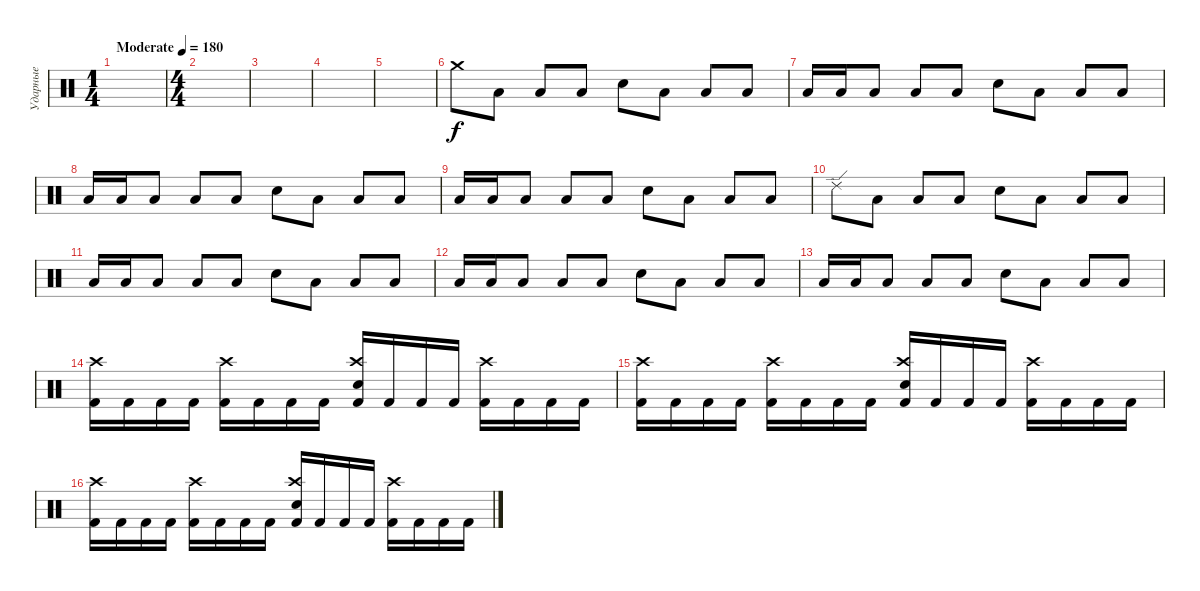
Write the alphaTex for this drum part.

\track ("Ударные" "Ударные") {instrument percussion}
\staff {score}
\articulation defaults
\ts (1 4)
\tempo (180 "Moderate")
\clef neutral
\ks c
|
\ts (4 4)
|
|
|
|
"Crash medium (hit)".8{volume 16} "Low Floor Tom (hit)".8 "Low Floor Tom (hit)".8 "Low Floor Tom (hit)".8 "Electric Snare (hit)".8 "Low Floor Tom (hit)".8 "Low Floor Tom (hit)".8 "Low Floor Tom (hit)".8 |
"Low Floor Tom (hit)".16 "Low Floor Tom (hit)".16 "Low Floor Tom (hit)".8 "Low Floor Tom (hit)".8 "Low Floor Tom (hit)".8 "Electric Snare (hit)".8 "Low Floor Tom (hit)".8 "Low Floor Tom (hit)".8 "Low Floor Tom (hit)".8 |
"Low Floor Tom (hit)".16 "Low Floor Tom (hit)".16 "Low Floor Tom (hit)".8 "Low Floor Tom (hit)".8 "Low Floor Tom (hit)".8 "Electric Snare (hit)".8 "Low Floor Tom (hit)".8 "Low Floor Tom (hit)".8 "Low Floor Tom (hit)".8 |
"Low Floor Tom (hit)".16 "Low Floor Tom (hit)".16 "Low Floor Tom (hit)".8 "Low Floor Tom (hit)".8 "Low Floor Tom (hit)".8 "Electric Snare (hit)".8 "Low Floor Tom (hit)".8 "Low Floor Tom (hit)".8 "Low Floor Tom (hit)".8 |
"Ride (edge) 2".8 "Low Floor Tom (hit)".8 "Low Floor Tom (hit)".8 "Low Floor Tom (hit)".8 "Electric Snare (hit)".8 "Low Floor Tom (hit)".8 "Low Floor Tom (hit)".8 "Low Floor Tom (hit)".8 |
"Low Floor Tom (hit)".16 "Low Floor Tom (hit)".16 "Low Floor Tom (hit)".8 "Low Floor Tom (hit)".8 "Low Floor Tom (hit)".8 "Electric Snare (hit)".8 "Low Floor Tom (hit)".8 "Low Floor Tom (hit)".8 "Low Floor Tom (hit)".8 |
"Low Floor Tom (hit)".16 "Low Floor Tom (hit)".16 "Low Floor Tom (hit)".8 "Low Floor Tom (hit)".8 "Low Floor Tom (hit)".8 "Electric Snare (hit)".8 "Low Floor Tom (hit)".8 "Low Floor Tom (hit)".8 "Low Floor Tom (hit)".8 |
"Low Floor Tom (hit)".16 "Low Floor Tom (hit)".16 "Low Floor Tom (hit)".8 "Low Floor Tom (hit)".8 "Low Floor Tom (hit)".8 "Electric Snare (hit)".8 "Low Floor Tom (hit)".8 "Low Floor Tom (hit)".8 "Low Floor Tom (hit)".8 |
("Crash high (hit)" "Kick (hit) 2").16{volume 13} "Kick (hit) 2".16 "Kick (hit) 2".16 "Kick (hit) 2".16 ("Crash high (hit)" "Kick (hit) 2").16 "Kick (hit) 2".16 "Kick (hit) 2".16 "Kick (hit) 2".16 ("Crash high (hit)" "Electric Snare (hit)" "Kick (hit) 2").16 "Kick (hit) 2".16 "Kick (hit) 2".16 "Kick (hit) 2".16 ("Crash high (hit)" "Kick (hit) 2").16 "Kick (hit) 2".16 "Kick (hit) 2".16 "Kick (hit) 2".16 |
("Crash high (hit)" "Kick (hit) 2").16 "Kick (hit) 2".16 "Kick (hit) 2".16 "Kick (hit) 2".16 ("Crash high (hit)" "Kick (hit) 2").16 "Kick (hit) 2".16 "Kick (hit) 2".16 "Kick (hit) 2".16 ("Crash high (hit)" "Electric Snare (hit)" "Kick (hit) 2").16 "Kick (hit) 2".16 "Kick (hit) 2".16 "Kick (hit) 2".16 ("Crash high (hit)" "Kick (hit) 2").16 "Kick (hit) 2".16 "Kick (hit) 2".16 "Kick (hit) 2".16 |
("Crash high (hit)" "Kick (hit) 2").16 "Kick (hit) 2".16 "Kick (hit) 2".16 "Kick (hit) 2".16 ("Crash high (hit)" "Kick (hit) 2").16 "Kick (hit) 2".16 "Kick (hit) 2".16 "Kick (hit) 2".16 ("Crash high (hit)" "Electric Snare (hit)" "Kick (hit) 2").16 "Kick (hit) 2".16 "Kick (hit) 2".16 "Kick (hit) 2".16 ("Crash high (hit)" "Kick (hit) 2").16 "Kick (hit) 2".16 "Kick (hit) 2".16 "Kick (hit) 2".16
